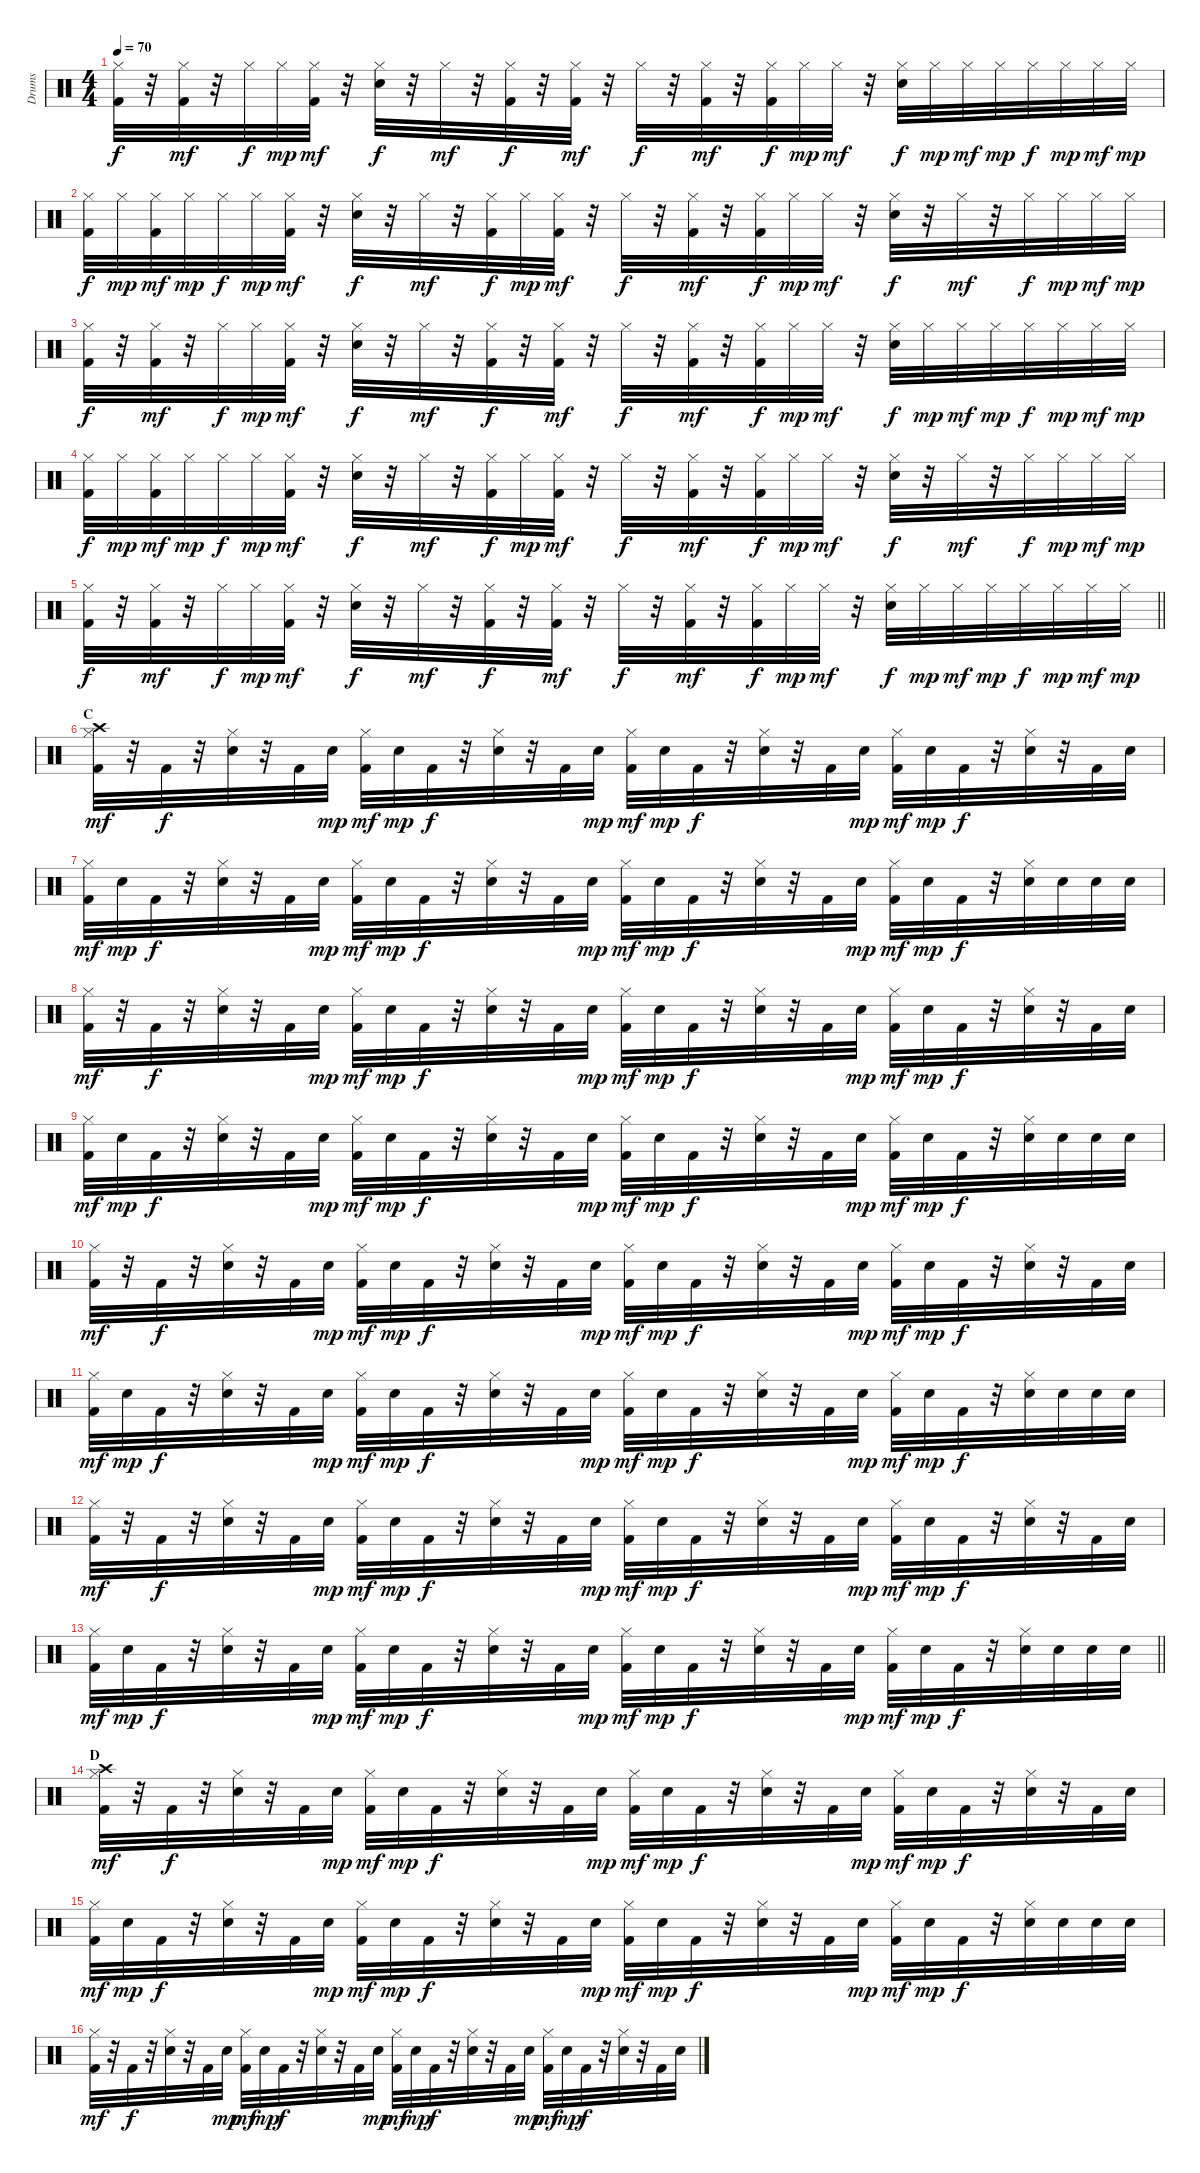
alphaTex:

\track ("Drums" "Drums") {instrument percussion}
\staff
\articulation defaults
\ts (4 4)
\tempo 70
\clef neutral
\ks c
("Hi-Hat (closed)" "Kick (hit) 2").32{dy f} r.32 ("Hi-Hat (closed)" "Kick (hit) 2").32{dy mf} r.32 "Hi-Hat (closed)".32{dy f} "Hi-Hat (closed)".32{dy mp} ("Hi-Hat (closed)" "Kick (hit) 2").32{dy mf} r.32 ("Hi-Hat (closed)" "Electric Snare (hit)").32{dy f} r.32 "Hi-Hat (closed)".32{dy mf} r.32 ("Hi-Hat (closed)" "Kick (hit) 2").32{dy f} r.32 ("Hi-Hat (closed)" "Kick (hit) 2").32{dy mf} r.32 "Hi-Hat (closed)".32{dy f} r.32 ("Hi-Hat (closed)" "Kick (hit) 2").32{dy mf} r.32 ("Hi-Hat (closed)" "Kick (hit) 2").32{dy f} "Hi-Hat (closed)".32{dy mp} "Hi-Hat (closed)".32{dy mf} r.32 ("Hi-Hat (closed)" "Electric Snare (hit)").32{dy f} "Hi-Hat (closed)".32{dy mp} "Hi-Hat (closed)".32{dy mf} "Hi-Hat (closed)".32{dy mp} "Hi-Hat (closed)".32{dy f} "Hi-Hat (closed)".32{dy mp} "Hi-Hat (closed)".32{dy mf} "Hi-Hat (closed)".32{dy mp} |
("Hi-Hat (closed)" "Kick (hit) 2").32{dy f} "Hi-Hat (closed)".32{dy mp} ("Hi-Hat (closed)" "Kick (hit) 2").32{dy mf} "Hi-Hat (closed)".32{dy mp} "Hi-Hat (closed)".32{dy f} "Hi-Hat (closed)".32{dy mp} ("Hi-Hat (closed)" "Kick (hit) 2").32{dy mf} r.32 ("Hi-Hat (closed)" "Electric Snare (hit)").32{dy f} r.32 "Hi-Hat (closed)".32{dy mf} r.32 ("Hi-Hat (closed)" "Kick (hit) 2").32{dy f} "Hi-Hat (closed)".32{dy mp} ("Hi-Hat (closed)" "Kick (hit) 2").32{dy mf} r.32 "Hi-Hat (closed)".32{dy f} r.32 ("Hi-Hat (closed)" "Kick (hit) 2").32{dy mf} r.32 ("Hi-Hat (closed)" "Kick (hit) 2").32{dy f} "Hi-Hat (closed)".32{dy mp} "Hi-Hat (closed)".32{dy mf} r.32 ("Hi-Hat (closed)" "Electric Snare (hit)").32{dy f} r.32 "Hi-Hat (closed)".32{dy mf} r.32 "Hi-Hat (closed)".32{dy f} "Hi-Hat (closed)".32{dy mp} "Hi-Hat (closed)".32{dy mf} "Hi-Hat (closed)".32{dy mp} |
("Hi-Hat (closed)" "Kick (hit) 2").32{dy f} r.32 ("Hi-Hat (closed)" "Kick (hit) 2").32{dy mf} r.32 "Hi-Hat (closed)".32{dy f} "Hi-Hat (closed)".32{dy mp} ("Hi-Hat (closed)" "Kick (hit) 2").32{dy mf} r.32 ("Hi-Hat (closed)" "Electric Snare (hit)").32{dy f} r.32 "Hi-Hat (closed)".32{dy mf} r.32 ("Hi-Hat (closed)" "Kick (hit) 2").32{dy f} r.32 ("Hi-Hat (closed)" "Kick (hit) 2").32{dy mf} r.32 "Hi-Hat (closed)".32{dy f} r.32 ("Hi-Hat (closed)" "Kick (hit) 2").32{dy mf} r.32 ("Hi-Hat (closed)" "Kick (hit) 2").32{dy f} "Hi-Hat (closed)".32{dy mp} "Hi-Hat (closed)".32{dy mf} r.32 ("Hi-Hat (closed)" "Electric Snare (hit)").32{dy f} "Hi-Hat (closed)".32{dy mp} "Hi-Hat (closed)".32{dy mf} "Hi-Hat (closed)".32{dy mp} "Hi-Hat (closed)".32{dy f} "Hi-Hat (closed)".32{dy mp} "Hi-Hat (closed)".32{dy mf} "Hi-Hat (closed)".32{dy mp} |
("Hi-Hat (closed)" "Kick (hit) 2").32{dy f} "Hi-Hat (closed)".32{dy mp} ("Hi-Hat (closed)" "Kick (hit) 2").32{dy mf} "Hi-Hat (closed)".32{dy mp} "Hi-Hat (closed)".32{dy f} "Hi-Hat (closed)".32{dy mp} ("Hi-Hat (closed)" "Kick (hit) 2").32{dy mf} r.32 ("Hi-Hat (closed)" "Electric Snare (hit)").32{dy f} r.32 "Hi-Hat (closed)".32{dy mf} r.32 ("Hi-Hat (closed)" "Kick (hit) 2").32{dy f} "Hi-Hat (closed)".32{dy mp} ("Hi-Hat (closed)" "Kick (hit) 2").32{dy mf} r.32 "Hi-Hat (closed)".32{dy f} r.32 ("Hi-Hat (closed)" "Kick (hit) 2").32{dy mf} r.32 ("Hi-Hat (closed)" "Kick (hit) 2").32{dy f} "Hi-Hat (closed)".32{dy mp} "Hi-Hat (closed)".32{dy mf} r.32 ("Hi-Hat (closed)" "Electric Snare (hit)").32{dy f} r.32 "Hi-Hat (closed)".32{dy mf} r.32 "Hi-Hat (closed)".32{dy f} "Hi-Hat (closed)".32{dy mp} "Hi-Hat (closed)".32{dy mf} "Hi-Hat (closed)".32{dy mp} |
\barLineRight lightlight
("Hi-Hat (closed)" "Kick (hit) 2").32{dy f} r.32 ("Hi-Hat (closed)" "Kick (hit) 2").32{dy mf} r.32 "Hi-Hat (closed)".32{dy f} "Hi-Hat (closed)".32{dy mp} ("Hi-Hat (closed)" "Kick (hit) 2").32{dy mf} r.32 ("Hi-Hat (closed)" "Electric Snare (hit)").32{dy f} r.32 "Hi-Hat (closed)".32{dy mf} r.32 ("Hi-Hat (closed)" "Kick (hit) 2").32{dy f} r.32 ("Hi-Hat (closed)" "Kick (hit) 2").32{dy mf} r.32 "Hi-Hat (closed)".32{dy f} r.32 ("Hi-Hat (closed)" "Kick (hit) 2").32{dy mf} r.32 ("Hi-Hat (closed)" "Kick (hit) 2").32{dy f} "Hi-Hat (closed)".32{dy mp} "Hi-Hat (closed)".32{dy mf} r.32 ("Hi-Hat (closed)" "Electric Snare (hit)").32{dy f} "Hi-Hat (closed)".32{dy mp} "Hi-Hat (closed)".32{dy mf} "Hi-Hat (closed)".32{dy mp} "Hi-Hat (closed)".32{dy f} "Hi-Hat (closed)".32{dy mp} "Hi-Hat (closed)".32{dy mf} "Hi-Hat (closed)".32{dy mp} |
\section ("" "C")
("Hi-Hat (closed)" "Crash high (hit)" "Kick (hit) 2").32{dy mf} r.32 "Kick (hit) 2".32{dy f} r.32 ("Hi-Hat (closed)" "Electric Snare (hit)").32 r.32 "Kick (hit) 2".32 "Electric Snare (hit)".32{dy mp} ("Hi-Hat (closed)" "Kick (hit) 2").32{dy mf} "Electric Snare (hit)".32{dy mp} "Kick (hit) 2".32{dy f} r.32 ("Hi-Hat (closed)" "Electric Snare (hit)").32 r.32 "Kick (hit) 2".32 "Electric Snare (hit)".32{dy mp} ("Hi-Hat (closed)" "Kick (hit) 2").32{dy mf} "Electric Snare (hit)".32{dy mp} "Kick (hit) 2".32{dy f} r.32 ("Hi-Hat (closed)" "Electric Snare (hit)").32 r.32 "Kick (hit) 2".32 "Electric Snare (hit)".32{dy mp} ("Hi-Hat (closed)" "Kick (hit) 2").32{dy mf} "Electric Snare (hit)".32{dy mp} "Kick (hit) 2".32{dy f} r.32 ("Hi-Hat (closed)" "Electric Snare (hit)").32 r.32 "Kick (hit) 2".32 "Electric Snare (hit)".32 |
("Hi-Hat (closed)" "Kick (hit) 2").32{dy mf} "Electric Snare (hit)".32{dy mp} "Kick (hit) 2".32{dy f} r.32 ("Hi-Hat (closed)" "Electric Snare (hit)").32 r.32 "Kick (hit) 2".32 "Electric Snare (hit)".32{dy mp} ("Hi-Hat (closed)" "Kick (hit) 2").32{dy mf} "Electric Snare (hit)".32{dy mp} "Kick (hit) 2".32{dy f} r.32 ("Hi-Hat (closed)" "Electric Snare (hit)").32 r.32 "Kick (hit) 2".32 "Electric Snare (hit)".32{dy mp} ("Hi-Hat (closed)" "Kick (hit) 2").32{dy mf} "Electric Snare (hit)".32{dy mp} "Kick (hit) 2".32{dy f} r.32 ("Hi-Hat (closed)" "Electric Snare (hit)").32 r.32 "Kick (hit) 2".32 "Electric Snare (hit)".32{dy mp} ("Hi-Hat (closed)" "Kick (hit) 2").32{dy mf} "Electric Snare (hit)".32{dy mp} "Kick (hit) 2".32{dy f} r.32 ("Hi-Hat (closed)" "Electric Snare (hit)").32 "Electric Snare (hit)".32 "Electric Snare (hit)".32 "Electric Snare (hit)".32 |
("Hi-Hat (closed)" "Kick (hit) 2").32{dy mf} r.32 "Kick (hit) 2".32{dy f} r.32 ("Hi-Hat (closed)" "Electric Snare (hit)").32 r.32 "Kick (hit) 2".32 "Electric Snare (hit)".32{dy mp} ("Hi-Hat (closed)" "Kick (hit) 2").32{dy mf} "Electric Snare (hit)".32{dy mp} "Kick (hit) 2".32{dy f} r.32 ("Hi-Hat (closed)" "Electric Snare (hit)").32 r.32 "Kick (hit) 2".32 "Electric Snare (hit)".32{dy mp} ("Hi-Hat (closed)" "Kick (hit) 2").32{dy mf} "Electric Snare (hit)".32{dy mp} "Kick (hit) 2".32{dy f} r.32 ("Hi-Hat (closed)" "Electric Snare (hit)").32 r.32 "Kick (hit) 2".32 "Electric Snare (hit)".32{dy mp} ("Hi-Hat (closed)" "Kick (hit) 2").32{dy mf} "Electric Snare (hit)".32{dy mp} "Kick (hit) 2".32{dy f} r.32 ("Hi-Hat (closed)" "Electric Snare (hit)").32 r.32 "Kick (hit) 2".32 "Electric Snare (hit)".32 |
("Hi-Hat (closed)" "Kick (hit) 2").32{dy mf} "Electric Snare (hit)".32{dy mp} "Kick (hit) 2".32{dy f} r.32 ("Hi-Hat (closed)" "Electric Snare (hit)").32 r.32 "Kick (hit) 2".32 "Electric Snare (hit)".32{dy mp} ("Hi-Hat (closed)" "Kick (hit) 2").32{dy mf} "Electric Snare (hit)".32{dy mp} "Kick (hit) 2".32{dy f} r.32 ("Hi-Hat (closed)" "Electric Snare (hit)").32 r.32 "Kick (hit) 2".32 "Electric Snare (hit)".32{dy mp} ("Hi-Hat (closed)" "Kick (hit) 2").32{dy mf} "Electric Snare (hit)".32{dy mp} "Kick (hit) 2".32{dy f} r.32 ("Hi-Hat (closed)" "Electric Snare (hit)").32 r.32 "Kick (hit) 2".32 "Electric Snare (hit)".32{dy mp} ("Hi-Hat (closed)" "Kick (hit) 2").32{dy mf} "Electric Snare (hit)".32{dy mp} "Kick (hit) 2".32{dy f} r.32 ("Hi-Hat (closed)" "Electric Snare (hit)").32 "Electric Snare (hit)".32 "Electric Snare (hit)".32 "Electric Snare (hit)".32 |
("Hi-Hat (closed)" "Kick (hit) 2").32{dy mf} r.32 "Kick (hit) 2".32{dy f} r.32 ("Hi-Hat (closed)" "Electric Snare (hit)").32 r.32 "Kick (hit) 2".32 "Electric Snare (hit)".32{dy mp} ("Hi-Hat (closed)" "Kick (hit) 2").32{dy mf} "Electric Snare (hit)".32{dy mp} "Kick (hit) 2".32{dy f} r.32 ("Hi-Hat (closed)" "Electric Snare (hit)").32 r.32 "Kick (hit) 2".32 "Electric Snare (hit)".32{dy mp} ("Hi-Hat (closed)" "Kick (hit) 2").32{dy mf} "Electric Snare (hit)".32{dy mp} "Kick (hit) 2".32{dy f} r.32 ("Hi-Hat (closed)" "Electric Snare (hit)").32 r.32 "Kick (hit) 2".32 "Electric Snare (hit)".32{dy mp} ("Hi-Hat (closed)" "Kick (hit) 2").32{dy mf} "Electric Snare (hit)".32{dy mp} "Kick (hit) 2".32{dy f} r.32 ("Hi-Hat (closed)" "Electric Snare (hit)").32 r.32 "Kick (hit) 2".32 "Electric Snare (hit)".32 |
("Hi-Hat (closed)" "Kick (hit) 2").32{dy mf} "Electric Snare (hit)".32{dy mp} "Kick (hit) 2".32{dy f} r.32 ("Hi-Hat (closed)" "Electric Snare (hit)").32 r.32 "Kick (hit) 2".32 "Electric Snare (hit)".32{dy mp} ("Hi-Hat (closed)" "Kick (hit) 2").32{dy mf} "Electric Snare (hit)".32{dy mp} "Kick (hit) 2".32{dy f} r.32 ("Hi-Hat (closed)" "Electric Snare (hit)").32 r.32 "Kick (hit) 2".32 "Electric Snare (hit)".32{dy mp} ("Hi-Hat (closed)" "Kick (hit) 2").32{dy mf} "Electric Snare (hit)".32{dy mp} "Kick (hit) 2".32{dy f} r.32 ("Hi-Hat (closed)" "Electric Snare (hit)").32 r.32 "Kick (hit) 2".32 "Electric Snare (hit)".32{dy mp} ("Hi-Hat (closed)" "Kick (hit) 2").32{dy mf} "Electric Snare (hit)".32{dy mp} "Kick (hit) 2".32{dy f} r.32 ("Hi-Hat (closed)" "Electric Snare (hit)").32 "Electric Snare (hit)".32 "Electric Snare (hit)".32 "Electric Snare (hit)".32 |
("Hi-Hat (closed)" "Kick (hit) 2").32{dy mf} r.32 "Kick (hit) 2".32{dy f} r.32 ("Hi-Hat (closed)" "Electric Snare (hit)").32 r.32 "Kick (hit) 2".32 "Electric Snare (hit)".32{dy mp} ("Hi-Hat (closed)" "Kick (hit) 2").32{dy mf} "Electric Snare (hit)".32{dy mp} "Kick (hit) 2".32{dy f} r.32 ("Hi-Hat (closed)" "Electric Snare (hit)").32 r.32 "Kick (hit) 2".32 "Electric Snare (hit)".32{dy mp} ("Hi-Hat (closed)" "Kick (hit) 2").32{dy mf} "Electric Snare (hit)".32{dy mp} "Kick (hit) 2".32{dy f} r.32 ("Hi-Hat (closed)" "Electric Snare (hit)").32 r.32 "Kick (hit) 2".32 "Electric Snare (hit)".32{dy mp} ("Hi-Hat (closed)" "Kick (hit) 2").32{dy mf} "Electric Snare (hit)".32{dy mp} "Kick (hit) 2".32{dy f} r.32 ("Hi-Hat (closed)" "Electric Snare (hit)").32 r.32 "Kick (hit) 2".32 "Electric Snare (hit)".32 |
\barLineRight lightlight
("Hi-Hat (closed)" "Kick (hit) 2").32{dy mf} "Electric Snare (hit)".32{dy mp} "Kick (hit) 2".32{dy f} r.32 ("Hi-Hat (closed)" "Electric Snare (hit)").32 r.32 "Kick (hit) 2".32 "Electric Snare (hit)".32{dy mp} ("Hi-Hat (closed)" "Kick (hit) 2").32{dy mf} "Electric Snare (hit)".32{dy mp} "Kick (hit) 2".32{dy f} r.32 ("Hi-Hat (closed)" "Electric Snare (hit)").32 r.32 "Kick (hit) 2".32 "Electric Snare (hit)".32{dy mp} ("Hi-Hat (closed)" "Kick (hit) 2").32{dy mf} "Electric Snare (hit)".32{dy mp} "Kick (hit) 2".32{dy f} r.32 ("Hi-Hat (closed)" "Electric Snare (hit)").32 r.32 "Kick (hit) 2".32 "Electric Snare (hit)".32{dy mp} ("Hi-Hat (closed)" "Kick (hit) 2").32{dy mf} "Electric Snare (hit)".32{dy mp} "Kick (hit) 2".32{dy f} r.32 ("Hi-Hat (closed)" "Electric Snare (hit)").32 "Electric Snare (hit)".32 "Electric Snare (hit)".32 "Electric Snare (hit)".32 |
\section ("" "D")
("Hi-Hat (closed)" "Crash high (hit)" "Kick (hit) 2").32{dy mf} r.32 "Kick (hit) 2".32{dy f} r.32 ("Hi-Hat (closed)" "Electric Snare (hit)").32 r.32 "Kick (hit) 2".32 "Electric Snare (hit)".32{dy mp} ("Hi-Hat (closed)" "Kick (hit) 2").32{dy mf} "Electric Snare (hit)".32{dy mp} "Kick (hit) 2".32{dy f} r.32 ("Hi-Hat (closed)" "Electric Snare (hit)").32 r.32 "Kick (hit) 2".32 "Electric Snare (hit)".32{dy mp} ("Hi-Hat (closed)" "Kick (hit) 2").32{dy mf} "Electric Snare (hit)".32{dy mp} "Kick (hit) 2".32{dy f} r.32 ("Hi-Hat (closed)" "Electric Snare (hit)").32 r.32 "Kick (hit) 2".32 "Electric Snare (hit)".32{dy mp} ("Hi-Hat (closed)" "Kick (hit) 2").32{dy mf} "Electric Snare (hit)".32{dy mp} "Kick (hit) 2".32{dy f} r.32 ("Hi-Hat (closed)" "Electric Snare (hit)").32 r.32 "Kick (hit) 2".32 "Electric Snare (hit)".32 |
("Hi-Hat (closed)" "Kick (hit) 2").32{dy mf} "Electric Snare (hit)".32{dy mp} "Kick (hit) 2".32{dy f} r.32 ("Hi-Hat (closed)" "Electric Snare (hit)").32 r.32 "Kick (hit) 2".32 "Electric Snare (hit)".32{dy mp} ("Hi-Hat (closed)" "Kick (hit) 2").32{dy mf} "Electric Snare (hit)".32{dy mp} "Kick (hit) 2".32{dy f} r.32 ("Hi-Hat (closed)" "Electric Snare (hit)").32 r.32 "Kick (hit) 2".32 "Electric Snare (hit)".32{dy mp} ("Hi-Hat (closed)" "Kick (hit) 2").32{dy mf} "Electric Snare (hit)".32{dy mp} "Kick (hit) 2".32{dy f} r.32 ("Hi-Hat (closed)" "Electric Snare (hit)").32 r.32 "Kick (hit) 2".32 "Electric Snare (hit)".32{dy mp} ("Hi-Hat (closed)" "Kick (hit) 2").32{dy mf} "Electric Snare (hit)".32{dy mp} "Kick (hit) 2".32{dy f} r.32 ("Hi-Hat (closed)" "Electric Snare (hit)").32 "Electric Snare (hit)".32 "Electric Snare (hit)".32 "Electric Snare (hit)".32 |
("Hi-Hat (closed)" "Kick (hit) 2").32{dy mf} r.32 "Kick (hit) 2".32{dy f} r.32 ("Hi-Hat (closed)" "Electric Snare (hit)").32 r.32 "Kick (hit) 2".32 "Electric Snare (hit)".32{dy mp} ("Hi-Hat (closed)" "Kick (hit) 2").32{dy mf} "Electric Snare (hit)".32{dy mp} "Kick (hit) 2".32{dy f} r.32 ("Hi-Hat (closed)" "Electric Snare (hit)").32 r.32 "Kick (hit) 2".32 "Electric Snare (hit)".32{dy mp} ("Hi-Hat (closed)" "Kick (hit) 2").32{dy mf} "Electric Snare (hit)".32{dy mp} "Kick (hit) 2".32{dy f} r.32 ("Hi-Hat (closed)" "Electric Snare (hit)").32 r.32 "Kick (hit) 2".32 "Electric Snare (hit)".32{dy mp} ("Hi-Hat (closed)" "Kick (hit) 2").32{dy mf} "Electric Snare (hit)".32{dy mp} "Kick (hit) 2".32{dy f} r.32 ("Hi-Hat (closed)" "Electric Snare (hit)").32 r.32 "Kick (hit) 2".32 "Electric Snare (hit)".32
